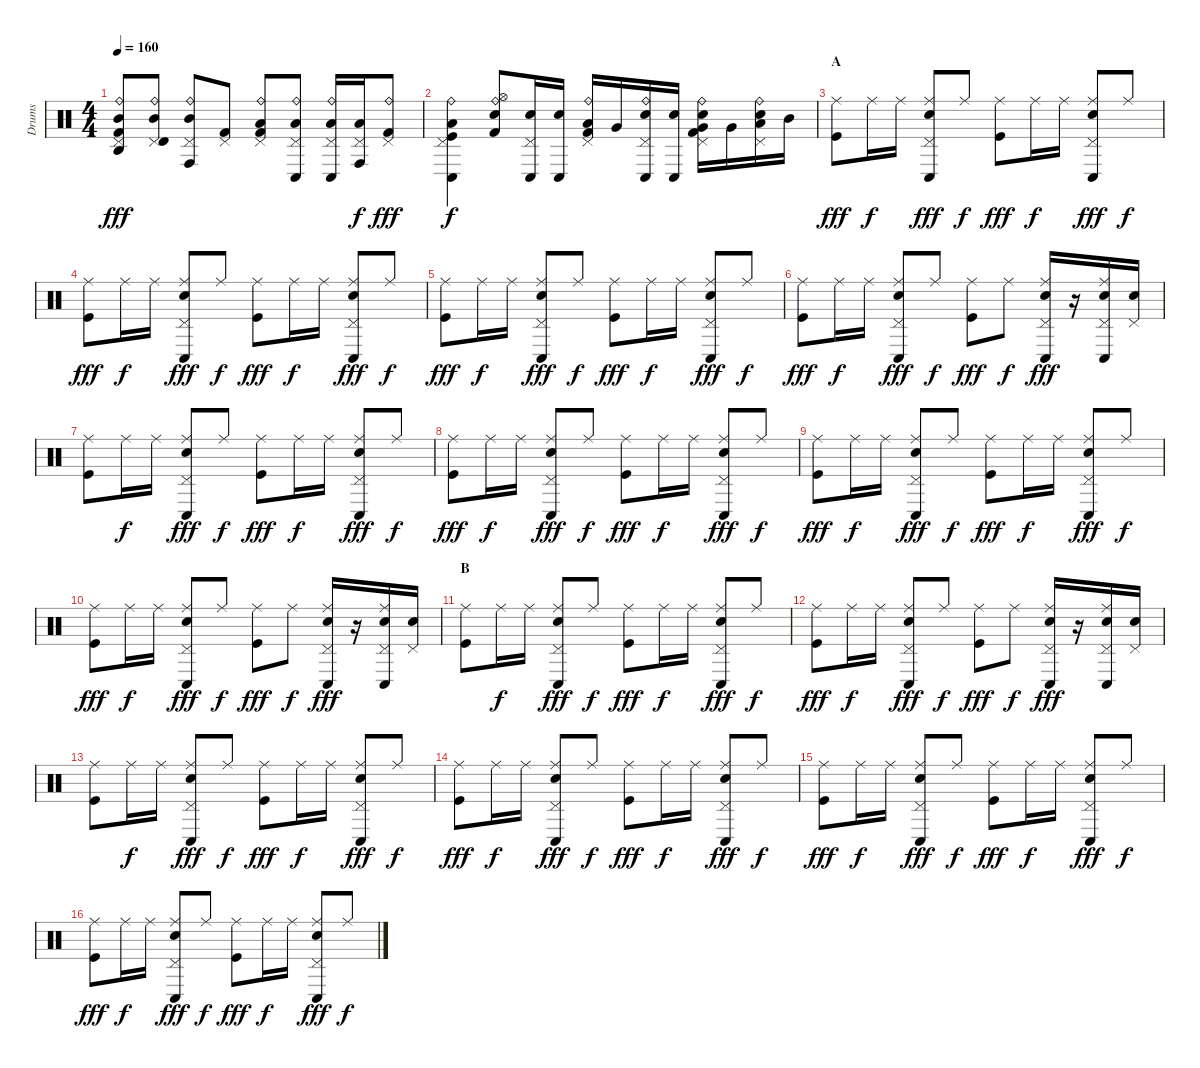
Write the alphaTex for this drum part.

\track ("Drums" "Drums") {instrument percussion}
\staff {score}
\articulation defaults
\ts (4 4)
\tempo 160
\clef neutral
\ks c
("Ride (bell)" "Pedal Hi-Hat (hit)" "Agogo high (hit)" "Mid Tom (hit)" "Kick (hit) 2").8{dy fff} ("Ride (bell)" "Pedal Hi-Hat (hit)" "Timbale high (hit)" "Mid Tom (hit)").8 ("Ride (bell)" "Pedal Hi-Hat (hit)" "Conga high (hit)" "Mid Tom (hit)").8 ("Pedal Hi-Hat (hit)" "Kick (hit) 2").8 ("Ride (bell)" "Pedal Hi-Hat (hit)" "Low Tom (hit)" "Kick (hit) 2").8 ("Ride (bell)" "Pedal Hi-Hat (hit)" "Conga low (hit)" "Low Tom (hit)").8 ("Ride (bell)" "Pedal Hi-Hat (hit)" "Conga low (hit)" "Low Tom (hit)").16 ("Pedal Hi-Hat (hit)" "Conga high (hit)" "Low Tom (hit)").16{dy f} ("Ride (bell)" "Pedal Hi-Hat (hit)" "Kick (hit) 2").8{dy fff} |
("Ride (bell)" "Pedal Hi-Hat (hit)" "Conga low (hit)" "Low Floor Tom (hit)" "Kick (hit)").4{dy f} ("Ride (bell)" "Hi-Hat (open)" "Electric Snare (hit)" "Kick (hit) 2").8 ("Pedal Hi-Hat (hit)" "Conga low (hit)" "Electric Snare (hit)").16 ("Conga low (hit)" "Electric Snare (hit)").16 ("Ride (bell)" "Pedal Hi-Hat (hit)" "Low Floor Tom (hit)" "Kick (hit) 2").16 "Very Low Tom (hit)".16 ("Ride (bell)" "Pedal Hi-Hat (hit)" "Conga low (hit)" "Electric Snare (hit)").16 ("Conga low (hit)" "Electric Snare (hit)").16 ("Ride (bell)" "Pedal Hi-Hat (hit)" "Very Low Tom (hit)" "Electric Snare (hit)" "Kick (hit) 2").16 "Very Low Tom (hit)".16 ("Ride (bell)" "Pedal Hi-Hat (hit)" "Low Tom (hit)" "Electric Snare (hit)").16 "Mid Tom (hit)".16 |
\section ("" "A")
("Ride (middle)" "Kick (hit)").8{dy fff} "Ride (middle)".16{dy f} "Ride (middle)".16 ("Ride (middle)" "Pedal Hi-Hat (hit)" "Conga low (hit)" "Electric Snare (hit)").8{dy fff} "Ride (middle)".8{dy f} ("Ride (middle)" "Kick (hit)").8{dy fff} "Ride (middle)".16{dy f} "Ride (middle)".16 ("Ride (middle)" "Pedal Hi-Hat (hit)" "Conga low (hit)" "Electric Snare (hit)").8{dy fff} "Ride (middle)".8{dy f} |
("Ride (middle)" "Kick (hit)").8{dy fff} "Ride (middle)".16{dy f} "Ride (middle)".16 ("Ride (middle)" "Pedal Hi-Hat (hit)" "Conga low (hit)" "Electric Snare (hit)").8{dy fff} "Ride (middle)".8{dy f} ("Ride (middle)" "Kick (hit)").8{dy fff} "Ride (middle)".16{dy f} "Ride (middle)".16 ("Ride (middle)" "Pedal Hi-Hat (hit)" "Conga low (hit)" "Electric Snare (hit)").8{dy fff} "Ride (middle)".8{dy f} |
("Ride (middle)" "Kick (hit)").8{dy fff} "Ride (middle)".16{dy f} "Ride (middle)".16 ("Ride (middle)" "Pedal Hi-Hat (hit)" "Conga low (hit)" "Electric Snare (hit)").8{dy fff} "Ride (middle)".8{dy f} ("Ride (middle)" "Kick (hit)").8{dy fff} "Ride (middle)".16{dy f} "Ride (middle)".16 ("Ride (middle)" "Pedal Hi-Hat (hit)" "Conga low (hit)" "Electric Snare (hit)").8{dy fff} "Ride (middle)".8{dy f} |
("Ride (middle)" "Kick (hit)").8{dy fff} "Ride (middle)".16{dy f} "Ride (middle)".16 ("Ride (middle)" "Pedal Hi-Hat (hit)" "Conga low (hit)" "Electric Snare (hit)").8{dy fff} "Ride (middle)".8{dy f} ("Ride (middle)" "Kick (hit)").8{dy fff} "Ride (middle)".8{dy f} ("Ride (middle)" "Pedal Hi-Hat (hit)" "Conga low (hit)" "Electric Snare (hit)").16{dy fff} r.16 ("Ride (middle)" "Pedal Hi-Hat (hit)" "Conga low (hit)" "Electric Snare (hit)").16 ("Pedal Hi-Hat (hit)" "Electric Snare (hit)").16 |
("Ride (middle)" "Kick (hit)").8 "Ride (middle)".16{dy f} "Ride (middle)".16 ("Ride (middle)" "Pedal Hi-Hat (hit)" "Conga low (hit)" "Electric Snare (hit)").8{dy fff} "Ride (middle)".8{dy f} ("Ride (middle)" "Kick (hit)").8{dy fff} "Ride (middle)".16{dy f} "Ride (middle)".16 ("Ride (middle)" "Pedal Hi-Hat (hit)" "Conga low (hit)" "Electric Snare (hit)").8{dy fff} "Ride (middle)".8{dy f} |
("Ride (middle)" "Kick (hit)").8{dy fff} "Ride (middle)".16{dy f} "Ride (middle)".16 ("Ride (middle)" "Pedal Hi-Hat (hit)" "Conga low (hit)" "Electric Snare (hit)").8{dy fff} "Ride (middle)".8{dy f} ("Ride (middle)" "Kick (hit)").8{dy fff} "Ride (middle)".16{dy f} "Ride (middle)".16 ("Ride (middle)" "Pedal Hi-Hat (hit)" "Conga low (hit)" "Electric Snare (hit)").8{dy fff} "Ride (middle)".8{dy f} |
("Ride (middle)" "Kick (hit)").8{dy fff} "Ride (middle)".16{dy f} "Ride (middle)".16 ("Ride (middle)" "Pedal Hi-Hat (hit)" "Conga low (hit)" "Electric Snare (hit)").8{dy fff} "Ride (middle)".8{dy f} ("Ride (middle)" "Kick (hit)").8{dy fff} "Ride (middle)".16{dy f} "Ride (middle)".16 ("Ride (middle)" "Pedal Hi-Hat (hit)" "Conga low (hit)" "Electric Snare (hit)").8{dy fff} "Ride (middle)".8{dy f} |
("Ride (middle)" "Kick (hit)").8{dy fff} "Ride (middle)".16{dy f} "Ride (middle)".16 ("Ride (middle)" "Pedal Hi-Hat (hit)" "Conga low (hit)" "Electric Snare (hit)").8{dy fff} "Ride (middle)".8{dy f} ("Ride (middle)" "Kick (hit)").8{dy fff} "Ride (middle)".8{dy f} ("Ride (middle)" "Pedal Hi-Hat (hit)" "Conga low (hit)" "Electric Snare (hit)").16{dy fff} r.16 ("Ride (middle)" "Pedal Hi-Hat (hit)" "Conga low (hit)" "Electric Snare (hit)").16 ("Pedal Hi-Hat (hit)" "Electric Snare (hit)").16 |
\section ("" "B")
("Ride (middle)" "Kick (hit)").8 "Ride (middle)".16{dy f} "Ride (middle)".16 ("Ride (middle)" "Pedal Hi-Hat (hit)" "Conga low (hit)" "Electric Snare (hit)").8{dy fff} "Ride (middle)".8{dy f} ("Ride (middle)" "Kick (hit)").8{dy fff} "Ride (middle)".16{dy f} "Ride (middle)".16 ("Ride (middle)" "Pedal Hi-Hat (hit)" "Conga low (hit)" "Electric Snare (hit)").8{dy fff} "Ride (middle)".8{dy f} |
("Ride (middle)" "Kick (hit)").8{dy fff} "Ride (middle)".16{dy f} "Ride (middle)".16 ("Ride (middle)" "Pedal Hi-Hat (hit)" "Conga low (hit)" "Electric Snare (hit)").8{dy fff} "Ride (middle)".8{dy f} ("Ride (middle)" "Kick (hit)").8{dy fff} "Ride (middle)".8{dy f} ("Ride (middle)" "Pedal Hi-Hat (hit)" "Conga low (hit)" "Electric Snare (hit)").16{dy fff} r.16 ("Ride (middle)" "Pedal Hi-Hat (hit)" "Conga low (hit)" "Electric Snare (hit)").16 ("Pedal Hi-Hat (hit)" "Electric Snare (hit)").16 |
("Ride (middle)" "Kick (hit)").8 "Ride (middle)".16{dy f} "Ride (middle)".16 ("Ride (middle)" "Pedal Hi-Hat (hit)" "Conga low (hit)" "Electric Snare (hit)").8{dy fff} "Ride (middle)".8{dy f} ("Ride (middle)" "Kick (hit)").8{dy fff} "Ride (middle)".16{dy f} "Ride (middle)".16 ("Ride (middle)" "Pedal Hi-Hat (hit)" "Conga low (hit)" "Electric Snare (hit)").8{dy fff} "Ride (middle)".8{dy f} |
("Ride (middle)" "Kick (hit)").8{dy fff} "Ride (middle)".16{dy f} "Ride (middle)".16 ("Ride (middle)" "Pedal Hi-Hat (hit)" "Conga low (hit)" "Electric Snare (hit)").8{dy fff} "Ride (middle)".8{dy f} ("Ride (middle)" "Kick (hit)").8{dy fff} "Ride (middle)".16{dy f} "Ride (middle)".16 ("Ride (middle)" "Pedal Hi-Hat (hit)" "Conga low (hit)" "Electric Snare (hit)").8{dy fff} "Ride (middle)".8{dy f} |
("Ride (middle)" "Kick (hit)").8{dy fff} "Ride (middle)".16{dy f} "Ride (middle)".16 ("Ride (middle)" "Pedal Hi-Hat (hit)" "Conga low (hit)" "Electric Snare (hit)").8{dy fff} "Ride (middle)".8{dy f} ("Ride (middle)" "Kick (hit)").8{dy fff} "Ride (middle)".16{dy f} "Ride (middle)".16 ("Ride (middle)" "Pedal Hi-Hat (hit)" "Conga low (hit)" "Electric Snare (hit)").8{dy fff} "Ride (middle)".8{dy f} |
("Ride (middle)" "Kick (hit)").8{dy fff} "Ride (middle)".16{dy f} "Ride (middle)".16 ("Ride (middle)" "Pedal Hi-Hat (hit)" "Conga low (hit)" "Electric Snare (hit)").8{dy fff} "Ride (middle)".8{dy f} ("Ride (middle)" "Kick (hit)").8{dy fff} "Ride (middle)".16{dy f} "Ride (middle)".16 ("Ride (middle)" "Pedal Hi-Hat (hit)" "Conga low (hit)" "Electric Snare (hit)").8{dy fff} "Ride (middle)".8{dy f}
